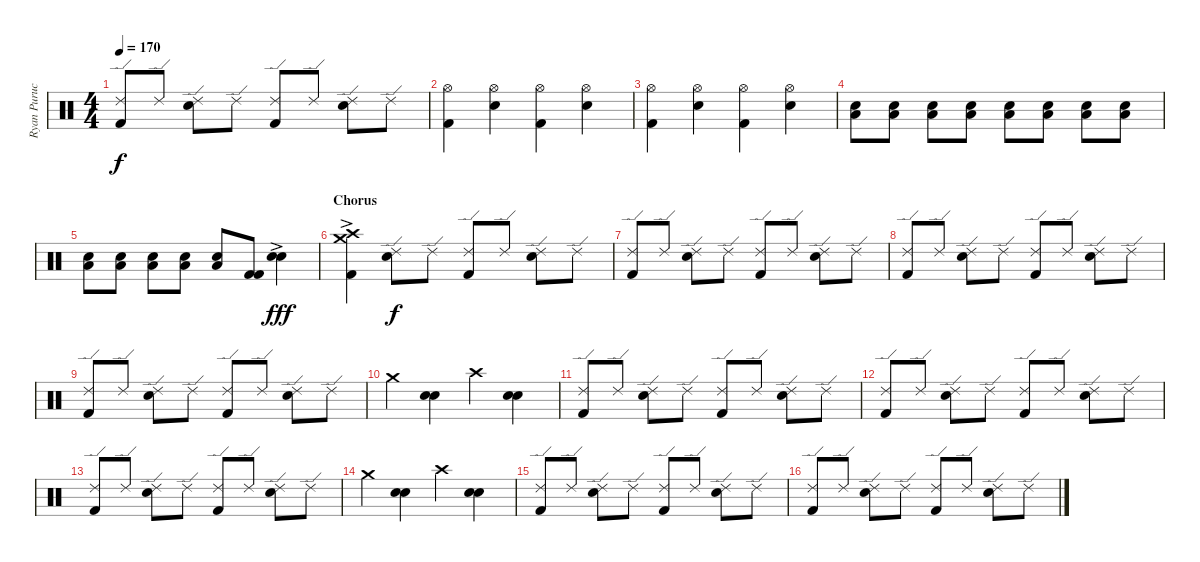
\track ("Ryan Purucker" "Ryan Puruc") {instrument percussion}
\staff {score}
\articulation defaults
\ts (4 4)
\tempo 170
\clef neutral
\ks c
("Ride (edge) 2" "Kick (hit) 2").8{dy f} "Ride (edge) 2".8 ("Ride (edge) 2" "Snare (hit) 2").8 "Ride (edge) 2".8 ("Ride (edge) 2" "Kick (hit) 2").8 "Ride (edge) 2".8 ("Ride (edge) 2" "Snare (hit) 2").8 "Ride (edge) 2".8 |
("Hi-Hat (open)" "Kick (hit) 2").4 ("Hi-Hat (open)" "Snare (hit) 2").4 ("Hi-Hat (open)" "Kick (hit) 2").4 ("Hi-Hat (open)" "Snare (hit) 2").4 |
("Hi-Hat (open)" "Kick (hit) 2").4 ("Hi-Hat (open)" "Snare (hit) 2").4 ("Hi-Hat (open)" "Kick (hit) 2").4 ("Hi-Hat (open)" "Snare (hit) 2").4{volume 7} |
("Low Tom (hit)" "Snare (hit) 2").8{volume 16} ("Low Tom (hit)" "Snare (hit) 2").8 ("Low Tom (hit)" "Snare (hit) 2").8 ("Low Tom (hit)" "Snare (hit) 2").8 ("Low Tom (hit)" "Snare (hit) 2").8 ("Low Tom (hit)" "Snare (hit) 2").8 ("Low Tom (hit)" "Snare (hit) 2").8 ("Low Tom (hit)" "Snare (hit) 2").8 |
("Low Tom (hit)" "Snare (hit) 2").8 ("Low Tom (hit)" "Snare (hit) 2").8 ("Low Tom (hit)" "Snare (hit) 2").8 ("Low Tom (hit)" "Snare (hit) 2").8 ("Low Tom (hit)" "Snare (hit) 2").8 ("Kick (hit) 2" "Kick (hit) 2").8 ("Snare (hit) 2"{ac} "Snare (hit) 2"{ac}).4{dy fff} |
\section ("" "Chorus")
("Crash high (hit)"{ac} "Kick (hit) 2" "Crash medium (hit)"{ac}).4 ("Ride (edge) 2" "Snare (hit) 2").8{dy f} "Ride (edge) 2".8 ("Ride (edge) 2" "Kick (hit) 2").8 "Ride (edge) 2".8 ("Ride (edge) 2" "Snare (hit) 2").8 "Ride (edge) 2".8 |
("Ride (edge) 2" "Kick (hit) 2").8 "Ride (edge) 2".8 ("Ride (edge) 2" "Snare (hit) 2").8 "Ride (edge) 2".8 ("Ride (edge) 2" "Kick (hit) 2").8 "Ride (edge) 2".8 ("Ride (edge) 2" "Snare (hit) 2").8 "Ride (edge) 2".8 |
("Ride (edge) 2" "Kick (hit) 2").8 "Ride (edge) 2".8 ("Ride (edge) 2" "Snare (hit) 2").8 "Ride (edge) 2".8 ("Ride (edge) 2" "Kick (hit) 2").8 "Ride (edge) 2".8 ("Ride (edge) 2" "Snare (hit) 2").8 "Ride (edge) 2".8 |
("Ride (edge) 2" "Kick (hit) 2").8 "Ride (edge) 2".8 ("Ride (edge) 2" "Snare (hit) 2").8 "Ride (edge) 2".8 ("Ride (edge) 2" "Kick (hit) 2").8 "Ride (edge) 2".8 ("Ride (edge) 2" "Snare (hit) 2").8 "Ride (edge) 2".8 |
"Crash medium (hit)".4 ("Snare (hit) 2" "Snare (hit) 2").4 "Crash high (hit)".4 ("Snare (hit) 2" "Snare (hit) 2").4 |
("Ride (edge) 2" "Kick (hit) 2").8 "Ride (edge) 2".8 ("Ride (edge) 2" "Snare (hit) 2").8 "Ride (edge) 2".8 ("Ride (edge) 2" "Kick (hit) 2").8 "Ride (edge) 2".8 ("Ride (edge) 2" "Snare (hit) 2").8 "Ride (edge) 2".8 |
("Ride (edge) 2" "Kick (hit) 2").8 "Ride (edge) 2".8 ("Ride (edge) 2" "Snare (hit) 2").8 "Ride (edge) 2".8 ("Ride (edge) 2" "Kick (hit) 2").8 "Ride (edge) 2".8 ("Ride (edge) 2" "Snare (hit) 2").8 "Ride (edge) 2".8 |
("Ride (edge) 2" "Kick (hit) 2").8 "Ride (edge) 2".8 ("Ride (edge) 2" "Snare (hit) 2").8 "Ride (edge) 2".8 ("Ride (edge) 2" "Kick (hit) 2").8 "Ride (edge) 2".8 ("Ride (edge) 2" "Snare (hit) 2").8 "Ride (edge) 2".8 |
"Crash medium (hit)".4 ("Snare (hit) 2" "Snare (hit) 2").4 "Crash high (hit)".4 ("Snare (hit) 2" "Snare (hit) 2").4 |
("Ride (edge) 2" "Kick (hit) 2").8 "Ride (edge) 2".8 ("Ride (edge) 2" "Snare (hit) 2").8 "Ride (edge) 2".8 ("Ride (edge) 2" "Kick (hit) 2").8 "Ride (edge) 2".8 ("Ride (edge) 2" "Snare (hit) 2").8 "Ride (edge) 2".8 |
("Ride (edge) 2" "Kick (hit) 2").8 "Ride (edge) 2".8 ("Ride (edge) 2" "Snare (hit) 2").8 "Ride (edge) 2".8 ("Ride (edge) 2" "Kick (hit) 2").8 "Ride (edge) 2".8 ("Ride (edge) 2" "Snare (hit) 2").8 "Ride (edge) 2".8
